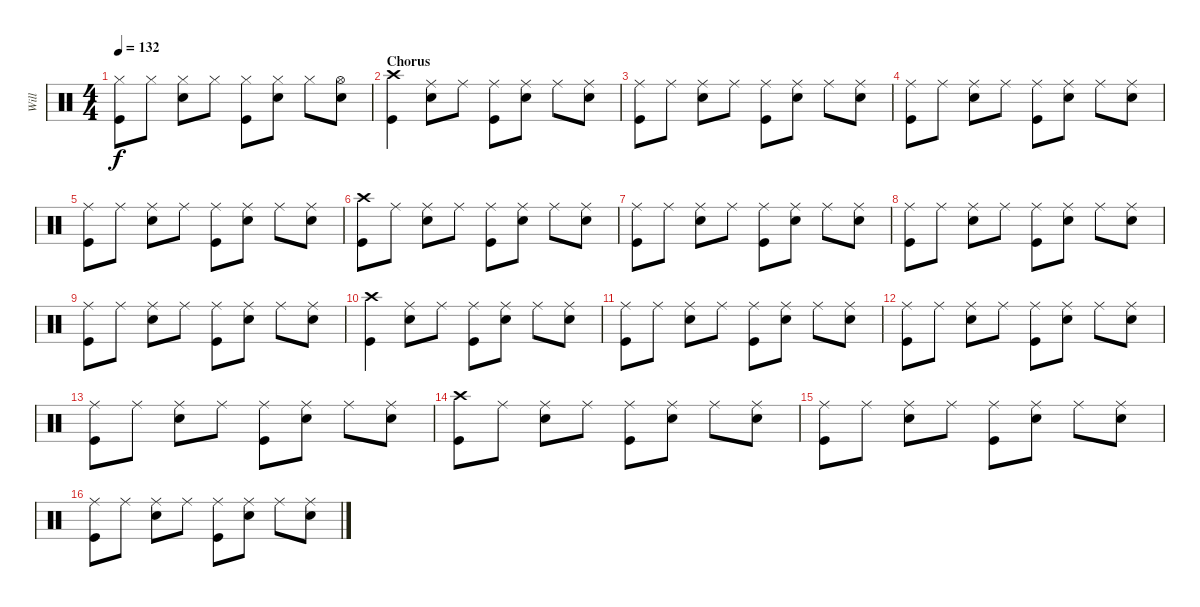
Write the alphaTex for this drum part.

\track ("Will" "Will") {instrument percussion}
\staff {score}
\articulation defaults
\ts (4 4)
\tempo 132
\clef neutral
\ks c
("Hi-Hat (closed)" "Kick (hit)").8{dy f} "Hi-Hat (closed)".8 ("Hi-Hat (closed)" "Snare (hit) 2").8 "Hi-Hat (closed)".8 ("Hi-Hat (closed)" "Kick (hit)").8 ("Hi-Hat (closed)" "Snare (hit) 2").8 "Hi-Hat (closed)".8 ("Hi-Hat (open)" "Snare (hit) 2").8 |
\section ("" "Chorus")
("Crash high (hit)" "Kick (hit)").4 ("Ride (middle)" "Snare (hit) 2").8 "Ride (middle)".8 ("Ride (middle)" "Kick (hit)").8 ("Ride (middle)" "Snare (hit) 2").8 "Ride (middle)".8 ("Ride (middle)" "Snare (hit) 2").8 |
("Ride (middle)" "Kick (hit)").8 "Ride (middle)".8 ("Ride (middle)" "Snare (hit) 2").8 "Ride (middle)".8 ("Ride (middle)" "Kick (hit)").8 ("Ride (middle)" "Snare (hit) 2").8 "Ride (middle)".8 ("Ride (middle)" "Snare (hit) 2").8 |
("Ride (middle)" "Kick (hit)").8 "Ride (middle)".8 ("Ride (middle)" "Snare (hit) 2").8 "Ride (middle)".8 ("Ride (middle)" "Kick (hit)").8 ("Ride (middle)" "Snare (hit) 2").8 "Ride (middle)".8 ("Ride (middle)" "Snare (hit) 2").8 |
("Ride (middle)" "Kick (hit)").8 "Ride (middle)".8 ("Ride (middle)" "Snare (hit) 2").8 "Ride (middle)".8 ("Ride (middle)" "Kick (hit)").8 ("Ride (middle)" "Snare (hit) 2").8 "Ride (middle)".8 ("Ride (middle)" "Snare (hit) 2").8 |
("Crash high (hit)" "Kick (hit)").8 "Ride (middle)".8 ("Ride (middle)" "Snare (hit) 2").8 "Ride (middle)".8 ("Ride (middle)" "Kick (hit)").8 ("Ride (middle)" "Snare (hit) 2").8 "Ride (middle)".8 ("Ride (middle)" "Snare (hit) 2").8 |
("Ride (middle)" "Kick (hit)").8 "Ride (middle)".8 ("Ride (middle)" "Snare (hit) 2").8 "Ride (middle)".8 ("Ride (middle)" "Kick (hit)").8 ("Ride (middle)" "Snare (hit) 2").8 "Ride (middle)".8 ("Ride (middle)" "Snare (hit) 2").8 |
("Ride (middle)" "Kick (hit)").8 "Ride (middle)".8 ("Ride (middle)" "Snare (hit) 2").8 "Ride (middle)".8 ("Ride (middle)" "Kick (hit)").8 ("Ride (middle)" "Snare (hit) 2").8 "Ride (middle)".8 ("Ride (middle)" "Snare (hit) 2").8 |
("Ride (middle)" "Kick (hit)").8 "Ride (middle)".8 ("Ride (middle)" "Snare (hit) 2").8 "Ride (middle)".8 ("Ride (middle)" "Kick (hit)").8 ("Ride (middle)" "Snare (hit) 2").8 "Ride (middle)".8 ("Ride (middle)" "Snare (hit) 2").8 |
("Crash high (hit)" "Kick (hit)").4 ("Ride (middle)" "Snare (hit) 2").8 "Ride (middle)".8 ("Ride (middle)" "Kick (hit)").8 ("Ride (middle)" "Snare (hit) 2").8 "Ride (middle)".8 ("Ride (middle)" "Snare (hit) 2").8 |
("Ride (middle)" "Kick (hit)").8 "Ride (middle)".8 ("Ride (middle)" "Snare (hit) 2").8 "Ride (middle)".8 ("Ride (middle)" "Kick (hit)").8 ("Ride (middle)" "Snare (hit) 2").8 "Ride (middle)".8 ("Ride (middle)" "Snare (hit) 2").8 |
("Ride (middle)" "Kick (hit)").8 "Ride (middle)".8 ("Ride (middle)" "Snare (hit) 2").8 "Ride (middle)".8 ("Ride (middle)" "Kick (hit)").8 ("Ride (middle)" "Snare (hit) 2").8 "Ride (middle)".8 ("Ride (middle)" "Snare (hit) 2").8 |
("Ride (middle)" "Kick (hit)").8 "Ride (middle)".8 ("Ride (middle)" "Snare (hit) 2").8 "Ride (middle)".8 ("Ride (middle)" "Kick (hit)").8 ("Ride (middle)" "Snare (hit) 2").8 "Ride (middle)".8 ("Ride (middle)" "Snare (hit) 2").8 |
("Crash high (hit)" "Kick (hit)").8 "Ride (middle)".8 ("Ride (middle)" "Snare (hit) 2").8 "Ride (middle)".8 ("Ride (middle)" "Kick (hit)").8 ("Ride (middle)" "Snare (hit) 2").8 "Ride (middle)".8 ("Ride (middle)" "Snare (hit) 2").8 |
("Ride (middle)" "Kick (hit)").8 "Ride (middle)".8 ("Ride (middle)" "Snare (hit) 2").8 "Ride (middle)".8 ("Ride (middle)" "Kick (hit)").8 ("Ride (middle)" "Snare (hit) 2").8 "Ride (middle)".8 ("Ride (middle)" "Snare (hit) 2").8 |
("Ride (middle)" "Kick (hit)").8 "Ride (middle)".8 ("Ride (middle)" "Snare (hit) 2").8 "Ride (middle)".8 ("Ride (middle)" "Kick (hit)").8 ("Ride (middle)" "Snare (hit) 2").8 "Ride (middle)".8 ("Ride (middle)" "Snare (hit) 2").8
